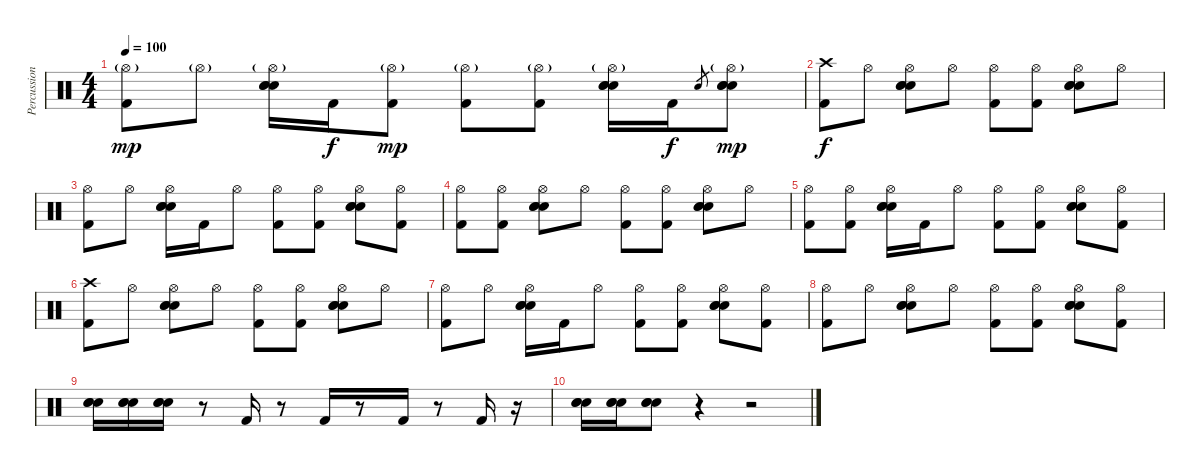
\track ("Percussions" "Percussion") {instrument percussion}
\staff {score}
\articulation defaults
\ts (4 4)
\tempo 100
\clef neutral
\ks c
("Hi-Hat (open)"{g} "Kick (hit) 2").8{dy mp} "Hi-Hat (open)"{g}.8 ("Hi-Hat (open)"{g} "Snare (hit) 2" "Electric Snare (hit)" "Electric Snare (hit)").16 "Kick (hit) 2".16{dy f} ("Hi-Hat (open)"{g} "Kick (hit) 2").8{dy mp} ("Hi-Hat (open)"{g} "Kick (hit) 2").8 ("Hi-Hat (open)"{g} "Kick (hit) 2").8 ("Hi-Hat (open)"{g} "Snare (hit) 2" "Electric Snare (hit)" "Electric Snare (hit)").16 "Kick (hit) 2".16{dy f} "Snare (hit) 2".8{gr} ("Hi-Hat (open)"{g} "Snare (hit) 2" "Electric Snare (hit)" "Electric Snare (hit)").8{dy mp} |
("Crash high (hit)" "Kick (hit) 2").8{dy f} "Hi-Hat (open)".8 ("Hi-Hat (open)" "Snare (hit) 2" "Electric Snare (hit)" "Electric Snare (hit)").8 "Hi-Hat (open)".8 ("Hi-Hat (open)" "Kick (hit) 2").8 ("Hi-Hat (open)" "Kick (hit) 2").8 ("Hi-Hat (open)" "Snare (hit) 2" "Electric Snare (hit)" "Electric Snare (hit)").8 "Hi-Hat (open)".8 |
("Hi-Hat (open)" "Kick (hit) 2").8 "Hi-Hat (open)".8 ("Hi-Hat (open)" "Snare (hit) 2" "Electric Snare (hit)" "Electric Snare (hit)").16 "Kick (hit) 2".16 "Hi-Hat (open)".8 ("Hi-Hat (open)" "Kick (hit) 2").8 ("Hi-Hat (open)" "Kick (hit) 2").8 ("Hi-Hat (open)" "Snare (hit) 2" "Electric Snare (hit)" "Electric Snare (hit)").8 ("Hi-Hat (open)" "Kick (hit) 2").8 |
("Hi-Hat (open)" "Kick (hit) 2").8 ("Hi-Hat (open)" "Kick (hit) 2").8 ("Hi-Hat (open)" "Snare (hit) 2" "Electric Snare (hit)" "Electric Snare (hit)").8 "Hi-Hat (open)".8 ("Hi-Hat (open)" "Kick (hit) 2").8 ("Hi-Hat (open)" "Kick (hit) 2").8 ("Hi-Hat (open)" "Snare (hit) 2" "Electric Snare (hit)" "Electric Snare (hit)").8 "Hi-Hat (open)".8 |
("Hi-Hat (open)" "Kick (hit) 2").8 ("Hi-Hat (open)" "Kick (hit) 2").8 ("Hi-Hat (open)" "Snare (hit) 2" "Electric Snare (hit)" "Electric Snare (hit)").16 "Kick (hit) 2".16 "Hi-Hat (open)".8 ("Hi-Hat (open)" "Kick (hit) 2").8 ("Hi-Hat (open)" "Kick (hit) 2").8 ("Hi-Hat (open)" "Snare (hit) 2" "Electric Snare (hit)" "Electric Snare (hit)").8 ("Hi-Hat (open)" "Kick (hit) 2").8 |
("Crash high (hit)" "Kick (hit) 2").8 "Hi-Hat (open)".8 ("Hi-Hat (open)" "Snare (hit) 2" "Electric Snare (hit)" "Electric Snare (hit)").8 "Hi-Hat (open)".8 ("Hi-Hat (open)" "Kick (hit) 2").8 ("Hi-Hat (open)" "Kick (hit) 2").8 ("Hi-Hat (open)" "Snare (hit) 2" "Electric Snare (hit)" "Electric Snare (hit)").8 "Hi-Hat (open)".8 |
("Hi-Hat (open)" "Kick (hit) 2").8 "Hi-Hat (open)".8 ("Hi-Hat (open)" "Snare (hit) 2" "Electric Snare (hit)" "Electric Snare (hit)").16 "Kick (hit) 2".16 "Hi-Hat (open)".8 ("Hi-Hat (open)" "Kick (hit) 2").8 ("Hi-Hat (open)" "Kick (hit) 2").8 ("Hi-Hat (open)" "Snare (hit) 2" "Electric Snare (hit)" "Electric Snare (hit)").8 ("Hi-Hat (open)" "Kick (hit) 2").8 |
("Hi-Hat (open)" "Kick (hit) 2").8 "Hi-Hat (open)".8 ("Hi-Hat (open)" "Snare (hit) 2" "Electric Snare (hit)" "Electric Snare (hit)").8 "Hi-Hat (open)".8 ("Hi-Hat (open)" "Kick (hit) 2").8 ("Hi-Hat (open)" "Kick (hit) 2").8 ("Hi-Hat (open)" "Snare (hit) 2" "Electric Snare (hit)" "Electric Snare (hit)").8 ("Hi-Hat (open)" "Kick (hit) 2").8 |
("Snare (hit) 2" "Electric Snare (hit)" "Electric Snare (hit)").16 ("Snare (hit) 2" "Electric Snare (hit)" "Electric Snare (hit)").16 ("Snare (hit) 2" "Electric Snare (hit)" "Electric Snare (hit)").16 r.8 "Kick (hit) 2".16 r.8 "Kick (hit) 2".16 r.8 "Kick (hit) 2".16 r.8 "Kick (hit) 2".16 r.16 |
("Snare (hit) 2" "Electric Snare (hit)" "Electric Snare (hit)").16 ("Snare (hit) 2" "Electric Snare (hit)" "Electric Snare (hit)").16 ("Snare (hit) 2" "Electric Snare (hit)" "Electric Snare (hit)").8 r.4 r.2
